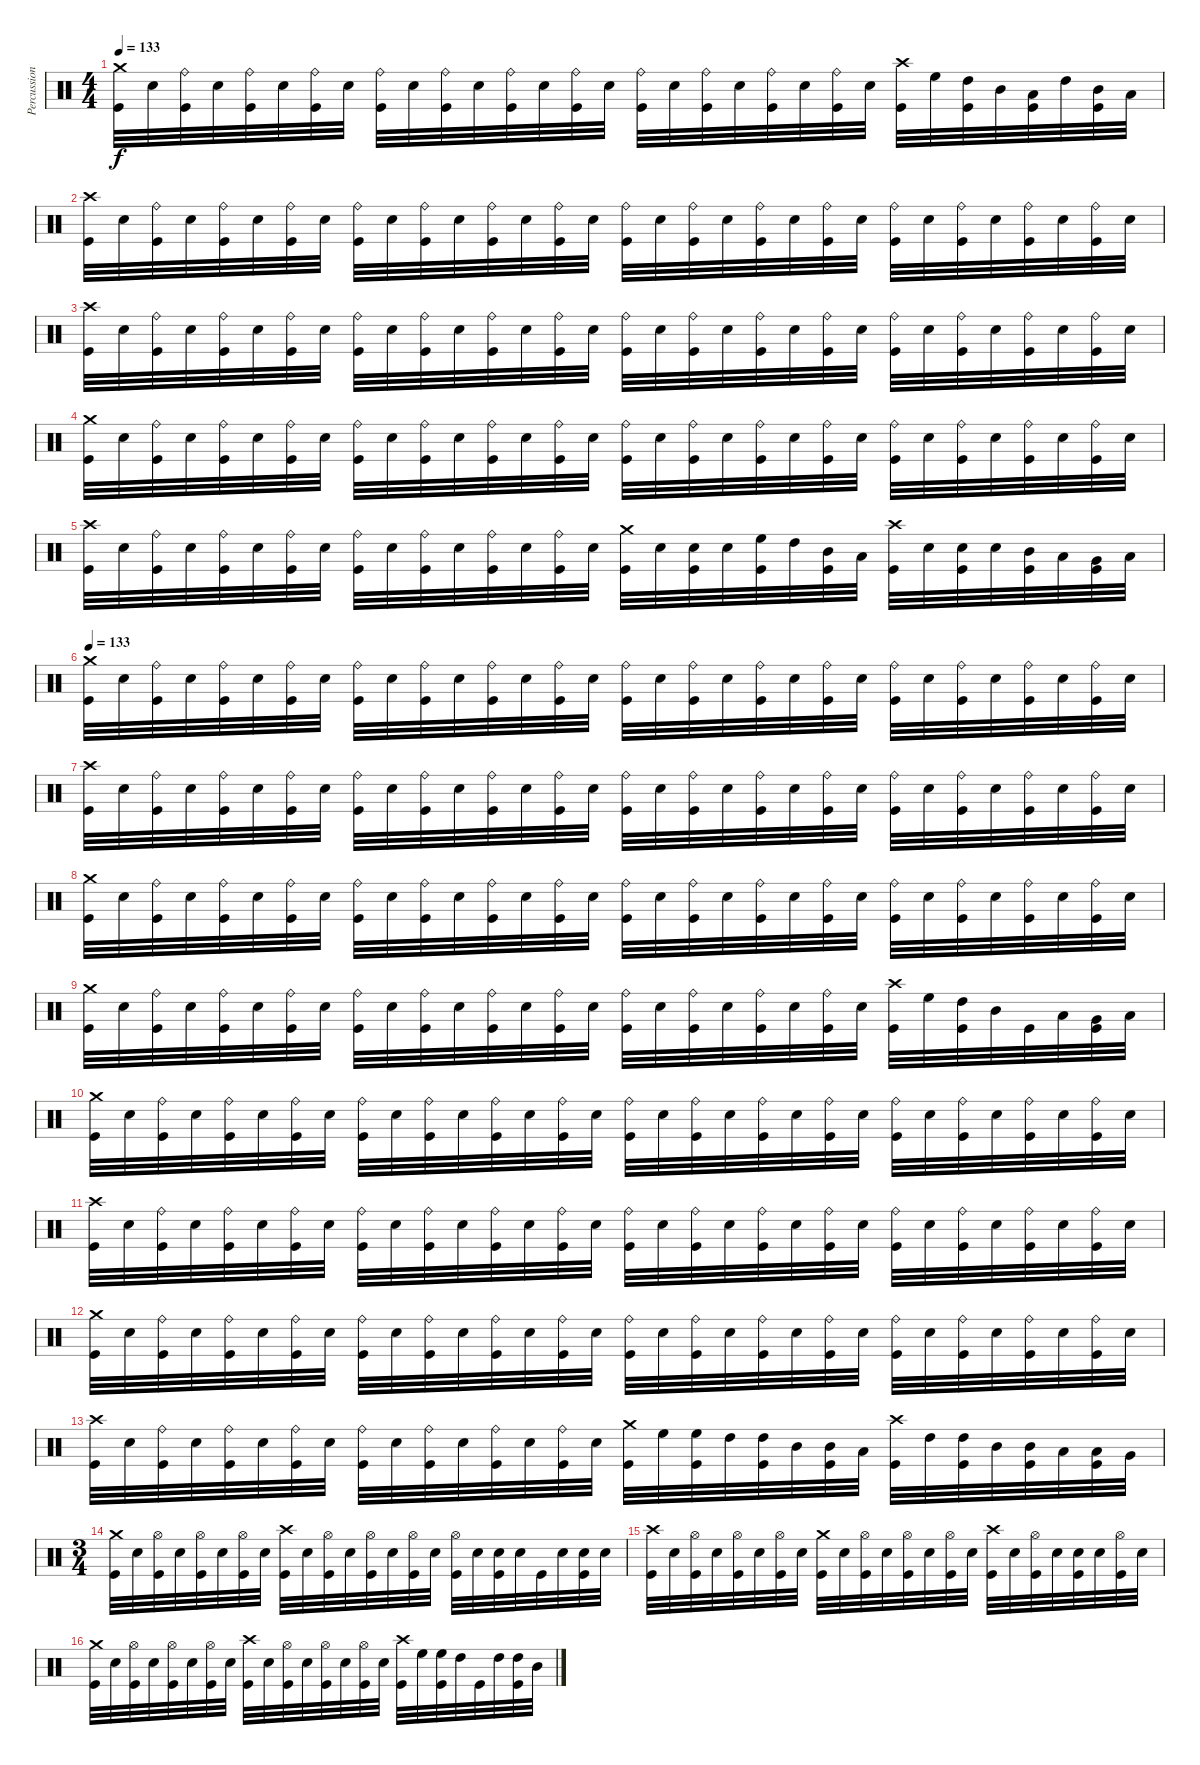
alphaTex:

\track ("Percussion" "Percussion") {instrument percussion}
\staff {score}
\articulation defaults
\ts (4 4)
\tempo 133
\clef neutral
\ks c
("Crash medium (hit)" "Kick (hit)").32{dy f} "Snare (hit) 2".32 ("Ride (bell)" "Kick (hit)").32 "Snare (hit) 2".32 ("Ride (bell)" "Kick (hit)").32 "Snare (hit) 2".32 ("Ride (bell)" "Kick (hit)").32 "Snare (hit) 2".32 ("Ride (bell)" "Kick (hit)").32 "Snare (hit) 2".32 ("Ride (bell)" "Kick (hit)").32 "Snare (hit) 2".32 ("Ride (bell)" "Kick (hit)").32 "Snare (hit) 2".32 ("Ride (bell)" "Kick (hit)").32 "Snare (hit) 2".32 ("Ride (bell)" "Kick (hit)").32 "Snare (hit) 2".32 ("Ride (bell)" "Kick (hit)").32 "Snare (hit) 2".32 ("Ride (bell)" "Kick (hit)").32 "Snare (hit) 2".32 ("Ride (bell)" "Kick (hit)").32 "Snare (hit) 2".32 ("Crash high (hit)" "Kick (hit)").32 "High Floor Tom (hit)".32 ("High Tom (hit)" "Kick (hit)").32 "Mid Tom (hit)".32 ("Low Tom (hit)" "Kick (hit)").32 "High Tom (hit)".32 ("Mid Tom (hit)" "Kick (hit)").32 "Low Tom (hit)".32 |
("Crash high (hit)" "Kick (hit)").32 "Snare (hit) 2".32 ("Ride (bell)" "Kick (hit)").32 "Snare (hit) 2".32 ("Ride (bell)" "Kick (hit)").32 "Snare (hit) 2".32 ("Ride (bell)" "Kick (hit)").32 "Snare (hit) 2".32 ("Ride (bell)" "Kick (hit)").32 "Snare (hit) 2".32 ("Ride (bell)" "Kick (hit)").32 "Snare (hit) 2".32 ("Ride (bell)" "Kick (hit)").32 "Snare (hit) 2".32 ("Ride (bell)" "Kick (hit)").32 "Snare (hit) 2".32 ("Ride (bell)" "Kick (hit)").32 "Snare (hit) 2".32 ("Ride (bell)" "Kick (hit)").32 "Snare (hit) 2".32 ("Ride (bell)" "Kick (hit)").32 "Snare (hit) 2".32 ("Ride (bell)" "Kick (hit)").32 "Snare (hit) 2".32 ("Ride (bell)" "Kick (hit)").32 "Snare (hit) 2".32 ("Ride (bell)" "Kick (hit)").32 "Snare (hit) 2".32 ("Ride (bell)" "Kick (hit)").32 "Snare (hit) 2".32 ("Ride (bell)" "Kick (hit)").32 "Snare (hit) 2".32 |
("Crash high (hit)" "Kick (hit)").32 "Snare (hit) 2".32 ("Ride (bell)" "Kick (hit)").32 "Snare (hit) 2".32 ("Ride (bell)" "Kick (hit)").32 "Snare (hit) 2".32 ("Ride (bell)" "Kick (hit)").32 "Snare (hit) 2".32 ("Ride (bell)" "Kick (hit)").32 "Snare (hit) 2".32 ("Ride (bell)" "Kick (hit)").32 "Snare (hit) 2".32 ("Ride (bell)" "Kick (hit)").32 "Snare (hit) 2".32 ("Ride (bell)" "Kick (hit)").32 "Snare (hit) 2".32 ("Ride (bell)" "Kick (hit)").32 "Snare (hit) 2".32 ("Ride (bell)" "Kick (hit)").32 "Snare (hit) 2".32 ("Ride (bell)" "Kick (hit)").32 "Snare (hit) 2".32 ("Ride (bell)" "Kick (hit)").32 "Snare (hit) 2".32 ("Ride (bell)" "Kick (hit)").32 "Snare (hit) 2".32 ("Ride (bell)" "Kick (hit)").32 "Snare (hit) 2".32 ("Ride (bell)" "Kick (hit)").32 "Snare (hit) 2".32 ("Ride (bell)" "Kick (hit)").32 "Snare (hit) 2".32 |
("Crash medium (hit)" "Kick (hit)").32 "Snare (hit) 2".32 ("Ride (bell)" "Kick (hit)").32 "Snare (hit) 2".32 ("Ride (bell)" "Kick (hit)").32 "Snare (hit) 2".32 ("Ride (bell)" "Kick (hit)").32 "Snare (hit) 2".32 ("Ride (bell)" "Kick (hit)").32 "Snare (hit) 2".32 ("Ride (bell)" "Kick (hit)").32 "Snare (hit) 2".32 ("Ride (bell)" "Kick (hit)").32 "Snare (hit) 2".32 ("Ride (bell)" "Kick (hit)").32 "Snare (hit) 2".32 ("Ride (bell)" "Kick (hit)").32 "Snare (hit) 2".32 ("Ride (bell)" "Kick (hit)").32 "Snare (hit) 2".32 ("Ride (bell)" "Kick (hit)").32 "Snare (hit) 2".32 ("Ride (bell)" "Kick (hit)").32 "Snare (hit) 2".32 ("Ride (bell)" "Kick (hit)").32 "Snare (hit) 2".32 ("Ride (bell)" "Kick (hit)").32 "Snare (hit) 2".32 ("Ride (bell)" "Kick (hit)").32 "Snare (hit) 2".32 ("Ride (bell)" "Kick (hit)").32 "Snare (hit) 2".32 |
("Crash high (hit)" "Kick (hit)").32 "Snare (hit) 2".32 ("Ride (bell)" "Kick (hit)").32 "Snare (hit) 2".32 ("Ride (bell)" "Kick (hit)").32 "Snare (hit) 2".32 ("Ride (bell)" "Kick (hit)").32 "Snare (hit) 2".32 ("Ride (bell)" "Kick (hit)").32 "Snare (hit) 2".32 ("Ride (bell)" "Kick (hit)").32 "Snare (hit) 2".32 ("Ride (bell)" "Kick (hit)").32 "Snare (hit) 2".32 ("Ride (bell)" "Kick (hit)").32 "Snare (hit) 2".32 ("Crash medium (hit)" "Kick (hit)").32 "Snare (hit) 2".32 ("Snare (hit) 2" "Kick (hit)").32 "Snare (hit) 2".32 ("High Floor Tom (hit)" "Kick (hit)").32 "High Tom (hit)".32 ("Mid Tom (hit)" "Kick (hit)").32 "Low Tom (hit)".32 ("Crash high (hit)" "Kick (hit)").32 "Snare (hit) 2".32 ("Snare (hit) 2" "Kick (hit)").32 "Snare (hit) 2".32 ("Mid Tom (hit)" "Kick (hit)").32 "Low Tom (hit)".32 ("Very Low Tom (hit)" "Kick (hit)").32 "Low Floor Tom (hit)".32 |
\tempo 133
("Crash medium (hit)" "Kick (hit)").32 "Snare (hit) 2".32 ("Ride (bell)" "Kick (hit)").32 "Snare (hit) 2".32 ("Ride (bell)" "Kick (hit)").32 "Snare (hit) 2".32 ("Ride (bell)" "Kick (hit)").32 "Snare (hit) 2".32 ("Ride (bell)" "Kick (hit)").32 "Snare (hit) 2".32 ("Ride (bell)" "Kick (hit)").32 "Snare (hit) 2".32 ("Ride (bell)" "Kick (hit)").32 "Snare (hit) 2".32 ("Ride (bell)" "Kick (hit)").32 "Snare (hit) 2".32 ("Ride (bell)" "Kick (hit)").32 "Snare (hit) 2".32 ("Ride (bell)" "Kick (hit)").32 "Snare (hit) 2".32 ("Ride (bell)" "Kick (hit)").32 "Snare (hit) 2".32 ("Ride (bell)" "Kick (hit)").32 "Snare (hit) 2".32 ("Ride (bell)" "Kick (hit)").32 "Snare (hit) 2".32 ("Ride (bell)" "Kick (hit)").32 "Snare (hit) 2".32 ("Ride (bell)" "Kick (hit)").32 "Snare (hit) 2".32 ("Ride (bell)" "Kick (hit)").32 "Snare (hit) 2".32 |
("Crash high (hit)" "Kick (hit)").32 "Snare (hit) 2".32 ("Ride (bell)" "Kick (hit)").32 "Snare (hit) 2".32 ("Ride (bell)" "Kick (hit)").32 "Snare (hit) 2".32 ("Ride (bell)" "Kick (hit)").32 "Snare (hit) 2".32 ("Ride (bell)" "Kick (hit)").32 "Snare (hit) 2".32 ("Ride (bell)" "Kick (hit)").32 "Snare (hit) 2".32 ("Ride (bell)" "Kick (hit)").32 "Snare (hit) 2".32 ("Ride (bell)" "Kick (hit)").32 "Snare (hit) 2".32 ("Ride (bell)" "Kick (hit)").32 "Snare (hit) 2".32 ("Ride (bell)" "Kick (hit)").32 "Snare (hit) 2".32 ("Ride (bell)" "Kick (hit)").32 "Snare (hit) 2".32 ("Ride (bell)" "Kick (hit)").32 "Snare (hit) 2".32 ("Ride (bell)" "Kick (hit)").32 "Snare (hit) 2".32 ("Ride (bell)" "Kick (hit)").32 "Snare (hit) 2".32 ("Ride (bell)" "Kick (hit)").32 "Snare (hit) 2".32 ("Ride (bell)" "Kick (hit)").32 "Snare (hit) 2".32 |
("Crash medium (hit)" "Kick (hit)").32 "Snare (hit) 2".32 ("Ride (bell)" "Kick (hit)").32 "Snare (hit) 2".32 ("Ride (bell)" "Kick (hit)").32 "Snare (hit) 2".32 ("Ride (bell)" "Kick (hit)").32 "Snare (hit) 2".32 ("Ride (bell)" "Kick (hit)").32 "Snare (hit) 2".32 ("Ride (bell)" "Kick (hit)").32 "Snare (hit) 2".32 ("Ride (bell)" "Kick (hit)").32 "Snare (hit) 2".32 ("Ride (bell)" "Kick (hit)").32 "Snare (hit) 2".32 ("Ride (bell)" "Kick (hit)").32 "Snare (hit) 2".32 ("Ride (bell)" "Kick (hit)").32 "Snare (hit) 2".32 ("Ride (bell)" "Kick (hit)").32 "Snare (hit) 2".32 ("Ride (bell)" "Kick (hit)").32 "Snare (hit) 2".32 ("Ride (bell)" "Kick (hit)").32 "Snare (hit) 2".32 ("Ride (bell)" "Kick (hit)").32 "Snare (hit) 2".32 ("Ride (bell)" "Kick (hit)").32 "Snare (hit) 2".32 ("Ride (bell)" "Kick (hit)").32 "Snare (hit) 2".32 |
("Crash medium (hit)" "Kick (hit)").32 "Snare (hit) 2".32 ("Ride (bell)" "Kick (hit)").32 "Snare (hit) 2".32 ("Ride (bell)" "Kick (hit)").32 "Snare (hit) 2".32 ("Ride (bell)" "Kick (hit)").32 "Snare (hit) 2".32 ("Ride (bell)" "Kick (hit)").32 "Snare (hit) 2".32 ("Ride (bell)" "Kick (hit)").32 "Snare (hit) 2".32 ("Ride (bell)" "Kick (hit)").32 "Snare (hit) 2".32 ("Ride (bell)" "Kick (hit)").32 "Snare (hit) 2".32 ("Ride (bell)" "Kick (hit)").32 "Snare (hit) 2".32 ("Ride (bell)" "Kick (hit)").32 "Snare (hit) 2".32 ("Ride (bell)" "Kick (hit)").32 "Snare (hit) 2".32 ("Ride (bell)" "Kick (hit)").32 "Snare (hit) 2".32 ("Crash high (hit)" "Kick (hit)").32 "High Floor Tom (hit)".32 ("High Tom (hit)" "Kick (hit)").32 "Mid Tom (hit)".32 "Kick (hit)".32 "Low Tom (hit)".32 ("Very Low Tom (hit)" "Kick (hit)").32 "Low Floor Tom (hit)".32 |
("Crash medium (hit)" "Kick (hit)").32 "Snare (hit) 2".32 ("Ride (bell)" "Kick (hit)").32 "Snare (hit) 2".32 ("Ride (bell)" "Kick (hit)").32 "Snare (hit) 2".32 ("Ride (bell)" "Kick (hit)").32 "Snare (hit) 2".32 ("Ride (bell)" "Kick (hit)").32 "Snare (hit) 2".32 ("Ride (bell)" "Kick (hit)").32 "Snare (hit) 2".32 ("Ride (bell)" "Kick (hit)").32 "Snare (hit) 2".32 ("Ride (bell)" "Kick (hit)").32 "Snare (hit) 2".32 ("Ride (bell)" "Kick (hit)").32 "Snare (hit) 2".32 ("Ride (bell)" "Kick (hit)").32 "Snare (hit) 2".32 ("Ride (bell)" "Kick (hit)").32 "Snare (hit) 2".32 ("Ride (bell)" "Kick (hit)").32 "Snare (hit) 2".32 ("Ride (bell)" "Kick (hit)").32 "Snare (hit) 2".32 ("Ride (bell)" "Kick (hit)").32 "Snare (hit) 2".32 ("Ride (bell)" "Kick (hit)").32 "Snare (hit) 2".32 ("Ride (bell)" "Kick (hit)").32 "Snare (hit) 2".32 |
("Crash high (hit)" "Kick (hit)").32 "Snare (hit) 2".32 ("Ride (bell)" "Kick (hit)").32 "Snare (hit) 2".32 ("Ride (bell)" "Kick (hit)").32 "Snare (hit) 2".32 ("Ride (bell)" "Kick (hit)").32 "Snare (hit) 2".32 ("Ride (bell)" "Kick (hit)").32 "Snare (hit) 2".32 ("Ride (bell)" "Kick (hit)").32 "Snare (hit) 2".32 ("Ride (bell)" "Kick (hit)").32 "Snare (hit) 2".32 ("Ride (bell)" "Kick (hit)").32 "Snare (hit) 2".32 ("Ride (bell)" "Kick (hit)").32 "Snare (hit) 2".32 ("Ride (bell)" "Kick (hit)").32 "Snare (hit) 2".32 ("Ride (bell)" "Kick (hit)").32 "Snare (hit) 2".32 ("Ride (bell)" "Kick (hit)").32 "Snare (hit) 2".32 ("Ride (bell)" "Kick (hit)").32 "Snare (hit) 2".32 ("Ride (bell)" "Kick (hit)").32 "Snare (hit) 2".32 ("Ride (bell)" "Kick (hit)").32 "Snare (hit) 2".32 ("Ride (bell)" "Kick (hit)").32 "Snare (hit) 2".32 |
("Crash medium (hit)" "Kick (hit)").32 "Snare (hit) 2".32 ("Ride (bell)" "Kick (hit)").32 "Snare (hit) 2".32 ("Ride (bell)" "Kick (hit)").32 "Snare (hit) 2".32 ("Ride (bell)" "Kick (hit)").32 "Snare (hit) 2".32 ("Ride (bell)" "Kick (hit)").32 "Snare (hit) 2".32 ("Ride (bell)" "Kick (hit)").32 "Snare (hit) 2".32 ("Ride (bell)" "Kick (hit)").32 "Snare (hit) 2".32 ("Ride (bell)" "Kick (hit)").32 "Snare (hit) 2".32 ("Ride (bell)" "Kick (hit)").32 "Snare (hit) 2".32 ("Ride (bell)" "Kick (hit)").32 "Snare (hit) 2".32 ("Ride (bell)" "Kick (hit)").32 "Snare (hit) 2".32 ("Ride (bell)" "Kick (hit)").32 "Snare (hit) 2".32 ("Ride (bell)" "Kick (hit)").32 "Snare (hit) 2".32 ("Ride (bell)" "Kick (hit)").32 "Snare (hit) 2".32 ("Ride (bell)" "Kick (hit)").32 "Snare (hit) 2".32 ("Ride (bell)" "Kick (hit)").32 "Snare (hit) 2".32 |
("Crash high (hit)" "Kick (hit)").32 "Snare (hit) 2".32 ("Ride (bell)" "Kick (hit)").32 "Snare (hit) 2".32 ("Ride (bell)" "Kick (hit)").32 "Snare (hit) 2".32 ("Ride (bell)" "Kick (hit)").32 "Snare (hit) 2".32 ("Ride (bell)" "Kick (hit)").32 "Snare (hit) 2".32 ("Ride (bell)" "Kick (hit)").32 "Snare (hit) 2".32 ("Ride (bell)" "Kick (hit)").32 "Snare (hit) 2".32 ("Ride (bell)" "Kick (hit)").32 "Snare (hit) 2".32 ("Crash medium (hit)" "Kick (hit)").32 "High Floor Tom (hit)".32 ("High Floor Tom (hit)" "Kick (hit)").32 "High Tom (hit)".32 ("High Tom (hit)" "Kick (hit)").32 "Mid Tom (hit)".32 ("Mid Tom (hit)" "Kick (hit)").32 "Low Tom (hit)".32 ("Crash high (hit)" "Kick (hit)").32 "High Tom (hit)".32 ("High Tom (hit)" "Kick (hit)").32 "Mid Tom (hit)".32 ("Mid Tom (hit)" "Kick (hit)").32 "Low Tom (hit)".32 ("Low Tom (hit)" "Kick (hit)").32 "Very Low Tom (hit)".32 |
\ts (3 4)
("Crash medium (hit)" "Kick (hit)").32 "Snare (hit) 2".32 ("Hi-Hat (open)" "Kick (hit)").32 "Snare (hit) 2".32 ("Hi-Hat (open)" "Kick (hit)").32 "Snare (hit) 2".32 ("Hi-Hat (open)" "Kick (hit)").32 "Snare (hit) 2".32 ("Crash high (hit)" "Kick (hit)").32 "Snare (hit) 2".32 ("Hi-Hat (open)" "Kick (hit)").32 "Snare (hit) 2".32 ("Hi-Hat (open)" "Kick (hit)").32 "Snare (hit) 2".32 ("Hi-Hat (open)" "Kick (hit)").32 "Snare (hit) 2".32 ("Hi-Hat (open)" "Kick (hit)").32 "Snare (hit) 2".32 ("Snare (hit) 2" "Kick (hit)").32 "Snare (hit) 2".32 "Kick (hit)".32 "Snare (hit) 2".32 ("Snare (hit) 2" "Kick (hit)").32 "Snare (hit) 2".32 |
("Crash high (hit)" "Kick (hit)").32 "Snare (hit) 2".32 ("Hi-Hat (open)" "Kick (hit)").32 "Snare (hit) 2".32 ("Hi-Hat (open)" "Kick (hit)").32 "Snare (hit) 2".32 ("Hi-Hat (open)" "Kick (hit)").32 "Snare (hit) 2".32 ("Crash medium (hit)" "Kick (hit)").32 "Snare (hit) 2".32 ("Hi-Hat (open)" "Kick (hit)").32 "Snare (hit) 2".32 ("Hi-Hat (open)" "Kick (hit)").32 "Snare (hit) 2".32 ("Hi-Hat (open)" "Kick (hit)").32 "Snare (hit) 2".32 ("Crash high (hit)" "Kick (hit)").32 "Snare (hit) 2".32 ("Hi-Hat (open)" "Kick (hit)").32 "Snare (hit) 2".32 ("Snare (hit) 2" "Kick (hit)").32 "Snare (hit) 2".32 ("Hi-Hat (open)" "Kick (hit)").32 "Snare (hit) 2".32 |
("Crash medium (hit)" "Kick (hit)").32 "Snare (hit) 2".32 ("Hi-Hat (open)" "Kick (hit)").32 "Snare (hit) 2".32 ("Hi-Hat (open)" "Kick (hit)").32 "Snare (hit) 2".32 ("Hi-Hat (open)" "Kick (hit)").32 "Snare (hit) 2".32 ("Crash high (hit)" "Kick (hit)").32 "Snare (hit) 2".32 ("Hi-Hat (open)" "Kick (hit)").32 "Snare (hit) 2".32 ("Hi-Hat (open)" "Kick (hit)").32 "Snare (hit) 2".32 ("Hi-Hat (open)" "Kick (hit)").32 "Snare (hit) 2".32 ("Crash high (hit)" "Kick (hit)").32 "High Floor Tom (hit)".32 ("High Floor Tom (hit)" "Kick (hit)").32 "High Tom (hit)".32 "Kick (hit)".32 "High Tom (hit)".32 ("High Tom (hit)" "Kick (hit)").32 "Mid Tom (hit)".32
